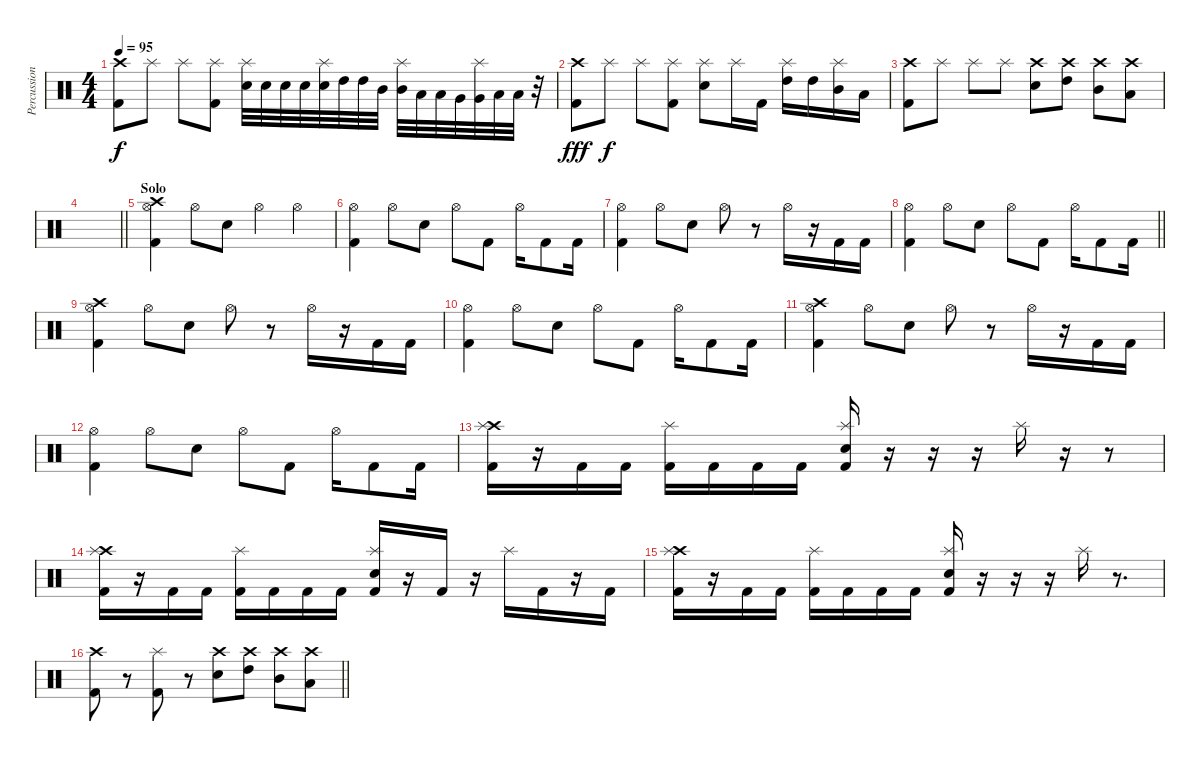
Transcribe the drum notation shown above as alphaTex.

\track ("Percussion" "Percussion") {instrument percussion}
\staff {score}
\articulation defaults
\ts (4 4)
\tempo 95
\clef neutral
\ks c
("Crash high (hit)" "Kick (hit) 2").8{dy f} "Splash (hit)".8 "Splash (hit)".8 ("Splash (hit)" "Kick (hit) 2").8 ("Splash (hit)" "Electric Snare (hit)").32 "Electric Snare (hit)".32 "Electric Snare (hit)".32 "Electric Snare (hit)".32 ("Splash (hit)" "Electric Snare (hit)").32 "High Tom (hit)".32 "High Tom (hit)".32 "Mid Tom (hit)".32 ("Splash (hit)" "Mid Tom (hit)").32 "Low Tom (hit)".32 "Low Tom (hit)".32 "Very Low Tom (hit)".32 ("Splash (hit)" "Very Low Tom (hit)").32 "Low Floor Tom (hit)".32 "Low Floor Tom (hit)".32 r.32 |
("Crash high (hit)" "Kick (hit) 2").8{dy fff} "Splash (hit)".8{dy f} "Splash (hit)".8 ("Splash (hit)" "Kick (hit) 2").8 ("Splash (hit)" "Electric Snare (hit)").8 "Splash (hit)".16 "Kick (hit) 2".16 ("Splash (hit)" "High Tom (hit)").16 "High Tom (hit)".16 ("Splash (hit)" "Mid Tom (hit)").16 "Low Tom (hit)".16 |
("Crash high (hit)" "Kick (hit) 2").8 "Splash (hit)".8 "Splash (hit)".8 "Splash (hit)".8 ("Crash high (hit)" "Electric Snare (hit)").8 ("Crash high (hit)" "High Tom (hit)").8 ("Crash high (hit)" "Mid Tom (hit)").8 ("Crash high (hit)" "Low Tom (hit)").8 |
\barLineRight lightlight
|
\section ("" "Solo")
("Hi-Hat (open)" "Crash high (hit)" "Kick (hit) 2").4 "Hi-Hat (open)".8 "Electric Snare (hit)".8 "Hi-Hat (open)".4 "Hi-Hat (open)".4 |
("Hi-Hat (open)" "Kick (hit) 2").4 "Hi-Hat (open)".8 "Electric Snare (hit)".8 "Hi-Hat (open)".8 "Kick (hit) 2".8 "Hi-Hat (open)".16 "Kick (hit) 2".8 "Kick (hit) 2".16 |
("Hi-Hat (open)" "Kick (hit) 2").4 "Hi-Hat (open)".8 "Electric Snare (hit)".8 "Hi-Hat (open)".8 r.8 "Hi-Hat (open)".16 r.16 "Kick (hit) 2".16 "Kick (hit) 2".16 |
\barLineRight lightlight
("Hi-Hat (open)" "Kick (hit) 2").4 "Hi-Hat (open)".8 "Electric Snare (hit)".8 "Hi-Hat (open)".8 "Kick (hit) 2".8 "Hi-Hat (open)".16 "Kick (hit) 2".8 "Kick (hit) 2".16 |
\section ("" "")
("Hi-Hat (open)" "Crash high (hit)" "Kick (hit) 2").4 "Hi-Hat (open)".8 "Electric Snare (hit)".8 "Hi-Hat (open)".8 r.8 "Hi-Hat (open)".16 r.16 "Kick (hit) 2".16 "Kick (hit) 2".16 |
("Hi-Hat (open)" "Kick (hit) 2").4 "Hi-Hat (open)".8 "Electric Snare (hit)".8 "Hi-Hat (open)".8 "Kick (hit) 2".8 "Hi-Hat (open)".16 "Kick (hit) 2".8 "Kick (hit) 2".16 |
("Hi-Hat (open)" "Crash high (hit)" "Kick (hit) 2").4 "Hi-Hat (open)".8 "Electric Snare (hit)".8 "Hi-Hat (open)".8 r.8 "Hi-Hat (open)".16 r.16 "Kick (hit) 2".16 "Kick (hit) 2".16 |
("Hi-Hat (open)" "Kick (hit) 2").4 "Hi-Hat (open)".8 "Electric Snare (hit)".8 "Hi-Hat (open)".8 "Kick (hit) 2".8 "Hi-Hat (open)".16 "Kick (hit) 2".8 "Kick (hit) 2".16 |
("Crash high (hit)" "Splash (hit)" "Kick (hit) 2").16 r.16 "Kick (hit) 2".16 "Kick (hit) 2".16 ("Splash (hit)" "Kick (hit) 2").16 "Kick (hit) 2".16 "Kick (hit) 2".16 "Kick (hit) 2".16 ("Splash (hit)" "Electric Snare (hit)" "Kick (hit) 2").16 r.16 r.16 r.16 "Splash (hit)".16 r.16 r.8 |
("Crash high (hit)" "Splash (hit)" "Kick (hit) 2").16 r.16 "Kick (hit) 2".16 "Kick (hit) 2".16 ("Splash (hit)" "Kick (hit) 2").16 "Kick (hit) 2".16 "Kick (hit) 2".16 "Kick (hit) 2".16 ("Splash (hit)" "Electric Snare (hit)" "Kick (hit) 2").16 r.16 "Kick (hit) 2".16 r.16 "Splash (hit)".16 "Kick (hit) 2".16 r.16 "Kick (hit) 2".16 |
("Crash high (hit)" "Splash (hit)" "Kick (hit) 2").16 r.16 "Kick (hit) 2".16 "Kick (hit) 2".16 ("Splash (hit)" "Kick (hit) 2").16 "Kick (hit) 2".16 "Kick (hit) 2".16 "Kick (hit) 2".16 ("Splash (hit)" "Electric Snare (hit)" "Kick (hit) 2").16 r.16 r.16 r.16 "Splash (hit)".16 r.8{d} |
\barLineRight lightlight
("Crash high (hit)" "Kick (hit) 2").8 r.8 ("Splash (hit)" "Kick (hit) 2").8 r.8 ("Crash high (hit)" "Electric Snare (hit)").8 ("Crash high (hit)" "High Tom (hit)").8 ("Crash high (hit)" "Mid Tom (hit)").8 ("Crash high (hit)" "Low Tom (hit)").8
